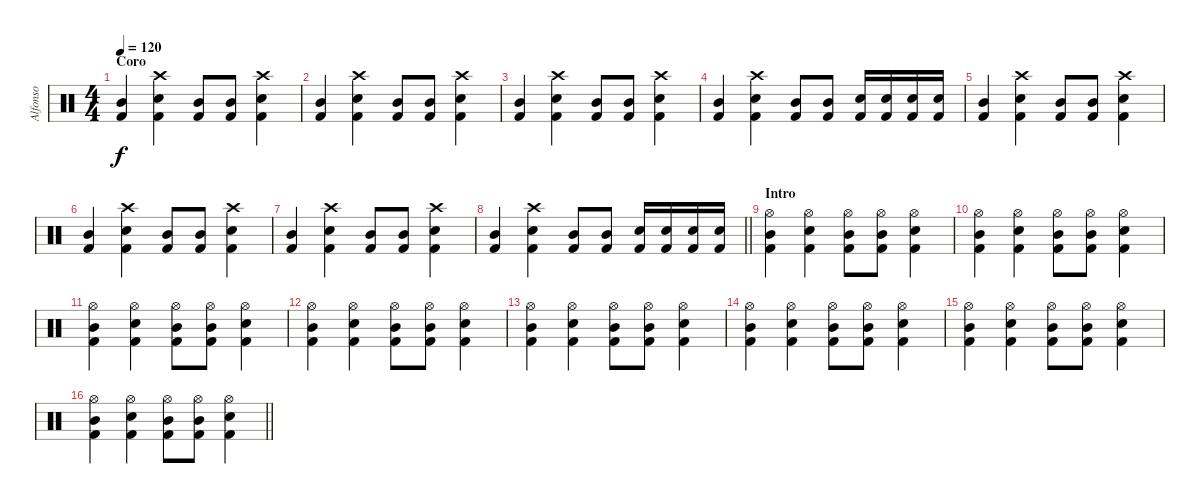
\track ("Alfonso" "Alfonso") {instrument percussion}
\staff {score}
\articulation defaults
\ts (4 4)
\section ("" "Coro")
\tempo 120
\clef neutral
\ks c
("Kick (hit) 2" "Mid Tom (hit)").4{dy f} ("Kick (hit) 2" "Snare (hit) 2" "Crash high (hit)").4 ("Kick (hit) 2" "Mid Tom (hit)").8 ("Kick (hit) 2" "Mid Tom (hit)").8 ("Kick (hit) 2" "Snare (hit) 2" "Crash high (hit)").4 |
("Kick (hit) 2" "Mid Tom (hit)").4 ("Kick (hit) 2" "Snare (hit) 2" "Crash high (hit)").4 ("Kick (hit) 2" "Mid Tom (hit)").8 ("Kick (hit) 2" "Mid Tom (hit)").8 ("Kick (hit) 2" "Snare (hit) 2" "Crash high (hit)").4 |
("Kick (hit) 2" "Mid Tom (hit)").4 ("Kick (hit) 2" "Snare (hit) 2" "Crash high (hit)").4 ("Kick (hit) 2" "Mid Tom (hit)").8 ("Kick (hit) 2" "Mid Tom (hit)").8 ("Kick (hit) 2" "Snare (hit) 2" "Crash high (hit)").4 |
("Kick (hit) 2" "Mid Tom (hit)").4 ("Kick (hit) 2" "Snare (hit) 2" "Crash high (hit)").4 ("Kick (hit) 2" "Mid Tom (hit)").8 ("Kick (hit) 2" "Mid Tom (hit)").8 ("Kick (hit) 2" "Snare (hit) 2").16 ("Kick (hit) 2" "Snare (hit) 2").16 ("Kick (hit) 2" "Snare (hit) 2").16 ("Kick (hit) 2" "Snare (hit) 2").16 |
("Kick (hit) 2" "Mid Tom (hit)").4 ("Kick (hit) 2" "Snare (hit) 2" "Crash high (hit)").4 ("Kick (hit) 2" "Mid Tom (hit)").8 ("Kick (hit) 2" "Mid Tom (hit)").8 ("Kick (hit) 2" "Snare (hit) 2" "Crash high (hit)").4 |
("Kick (hit) 2" "Mid Tom (hit)").4 ("Kick (hit) 2" "Snare (hit) 2" "Crash high (hit)").4 ("Kick (hit) 2" "Mid Tom (hit)").8 ("Kick (hit) 2" "Mid Tom (hit)").8 ("Kick (hit) 2" "Snare (hit) 2" "Crash high (hit)").4 |
("Kick (hit) 2" "Mid Tom (hit)").4 ("Kick (hit) 2" "Snare (hit) 2" "Crash high (hit)").4 ("Kick (hit) 2" "Mid Tom (hit)").8 ("Kick (hit) 2" "Mid Tom (hit)").8 ("Kick (hit) 2" "Snare (hit) 2" "Crash high (hit)").4 |
\barLineRight lightlight
("Kick (hit) 2" "Mid Tom (hit)").4 ("Kick (hit) 2" "Snare (hit) 2" "Crash high (hit)").4 ("Kick (hit) 2" "Mid Tom (hit)").8 ("Kick (hit) 2" "Mid Tom (hit)").8 ("Kick (hit) 2" "Snare (hit) 2").16 ("Kick (hit) 2" "Snare (hit) 2").16 ("Kick (hit) 2" "Snare (hit) 2").16 ("Kick (hit) 2" "Snare (hit) 2").16 |
\section ("" "Intro")
("Kick (hit) 2" "Mid Tom (hit)" "Hi-Hat (open)").4 ("Kick (hit) 2" "Snare (hit) 2" "Hi-Hat (open)").4 ("Kick (hit) 2" "Mid Tom (hit)" "Hi-Hat (open)").8 ("Kick (hit) 2" "Mid Tom (hit)" "Hi-Hat (open)").8 ("Kick (hit) 2" "Snare (hit) 2" "Hi-Hat (open)").4 |
("Kick (hit) 2" "Mid Tom (hit)" "Hi-Hat (open)").4 ("Kick (hit) 2" "Snare (hit) 2" "Hi-Hat (open)").4 ("Kick (hit) 2" "Mid Tom (hit)" "Hi-Hat (open)").8 ("Kick (hit) 2" "Mid Tom (hit)" "Hi-Hat (open)").8 ("Kick (hit) 2" "Snare (hit) 2" "Hi-Hat (open)").4 |
("Kick (hit) 2" "Mid Tom (hit)" "Hi-Hat (open)").4 ("Kick (hit) 2" "Snare (hit) 2" "Hi-Hat (open)").4 ("Kick (hit) 2" "Mid Tom (hit)" "Hi-Hat (open)").8 ("Kick (hit) 2" "Mid Tom (hit)" "Hi-Hat (open)").8 ("Kick (hit) 2" "Snare (hit) 2" "Hi-Hat (open)").4 |
("Kick (hit) 2" "Mid Tom (hit)" "Hi-Hat (open)").4 ("Kick (hit) 2" "Snare (hit) 2" "Hi-Hat (open)").4 ("Kick (hit) 2" "Mid Tom (hit)" "Hi-Hat (open)").8 ("Kick (hit) 2" "Mid Tom (hit)" "Hi-Hat (open)").8 ("Kick (hit) 2" "Snare (hit) 2" "Hi-Hat (open)").4 |
("Kick (hit) 2" "Mid Tom (hit)" "Hi-Hat (open)").4 ("Kick (hit) 2" "Snare (hit) 2" "Hi-Hat (open)").4 ("Kick (hit) 2" "Mid Tom (hit)" "Hi-Hat (open)").8 ("Kick (hit) 2" "Mid Tom (hit)" "Hi-Hat (open)").8 ("Kick (hit) 2" "Snare (hit) 2" "Hi-Hat (open)").4 |
("Kick (hit) 2" "Mid Tom (hit)" "Hi-Hat (open)").4 ("Kick (hit) 2" "Snare (hit) 2" "Hi-Hat (open)").4 ("Kick (hit) 2" "Mid Tom (hit)" "Hi-Hat (open)").8 ("Kick (hit) 2" "Mid Tom (hit)" "Hi-Hat (open)").8 ("Kick (hit) 2" "Snare (hit) 2" "Hi-Hat (open)").4 |
("Kick (hit) 2" "Mid Tom (hit)" "Hi-Hat (open)").4 ("Kick (hit) 2" "Snare (hit) 2" "Hi-Hat (open)").4 ("Kick (hit) 2" "Mid Tom (hit)" "Hi-Hat (open)").8 ("Kick (hit) 2" "Mid Tom (hit)" "Hi-Hat (open)").8 ("Kick (hit) 2" "Snare (hit) 2" "Hi-Hat (open)").4 |
\barLineRight lightlight
("Kick (hit) 2" "Mid Tom (hit)" "Hi-Hat (open)").4 ("Kick (hit) 2" "Snare (hit) 2" "Hi-Hat (open)").4 ("Kick (hit) 2" "Mid Tom (hit)" "Hi-Hat (open)").8 ("Kick (hit) 2" "Mid Tom (hit)" "Hi-Hat (open)").8 ("Kick (hit) 2" "Snare (hit) 2" "Hi-Hat (open)").4
